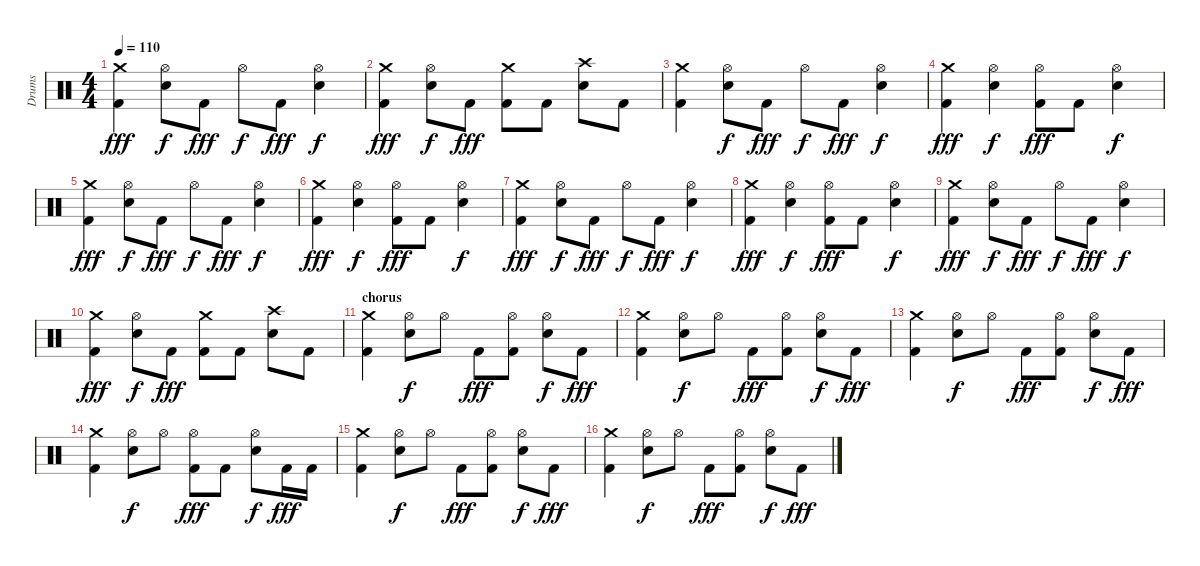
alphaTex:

\track ("Drums" "Drums") {instrument percussion}
\staff {score}
\articulation defaults
\ts (4 4)
\tempo 110
\clef neutral
\ks c
("Crash medium (hit)" "Kick (hit) 2").4{dy fff} ("Hi-Hat (open)" "Electric Snare (hit)").8{dy f} "Kick (hit) 2".8{dy fff} "Hi-Hat (open)".8{dy f} "Kick (hit) 2".8{dy fff} ("Hi-Hat (open)" "Electric Snare (hit)").4{dy f} |
("Crash medium (hit)" "Kick (hit) 2").4{dy fff} ("Hi-Hat (open)" "Electric Snare (hit)").8{dy f} "Kick (hit) 2".8{dy fff} ("Crash medium (hit)" "Kick (hit) 2").8 "Kick (hit) 2".8 ("Crash high (hit)" "Electric Snare (hit)").8 "Kick (hit) 2".8 |
("Crash medium (hit)" "Kick (hit) 2").4 ("Hi-Hat (open)" "Electric Snare (hit)").8{dy f} "Kick (hit) 2".8{dy fff} "Hi-Hat (open)".8{dy f} "Kick (hit) 2".8{dy fff} ("Hi-Hat (open)" "Electric Snare (hit)").4{dy f} |
("Crash medium (hit)" "Kick (hit) 2").4{dy fff} ("Hi-Hat (open)" "Electric Snare (hit)").4{dy f} ("Hi-Hat (open)" "Kick (hit) 2").8{dy fff} "Kick (hit) 2".8 ("Hi-Hat (open)" "Electric Snare (hit)").4{dy f} |
("Crash medium (hit)" "Kick (hit) 2").4{dy fff} ("Hi-Hat (open)" "Electric Snare (hit)").8{dy f} "Kick (hit) 2".8{dy fff} "Hi-Hat (open)".8{dy f} "Kick (hit) 2".8{dy fff} ("Hi-Hat (open)" "Electric Snare (hit)").4{dy f} |
("Crash medium (hit)" "Kick (hit) 2").4{dy fff} ("Hi-Hat (open)" "Electric Snare (hit)").4{dy f} ("Hi-Hat (open)" "Kick (hit) 2").8{dy fff} "Kick (hit) 2".8 ("Hi-Hat (open)" "Electric Snare (hit)").4{dy f} |
("Crash medium (hit)" "Kick (hit) 2").4{dy fff} ("Hi-Hat (open)" "Electric Snare (hit)").8{dy f} "Kick (hit) 2".8{dy fff} "Hi-Hat (open)".8{dy f} "Kick (hit) 2".8{dy fff} ("Hi-Hat (open)" "Electric Snare (hit)").4{dy f} |
("Crash medium (hit)" "Kick (hit) 2").4{dy fff} ("Hi-Hat (open)" "Electric Snare (hit)").4{dy f} ("Hi-Hat (open)" "Kick (hit) 2").8{dy fff} "Kick (hit) 2".8 ("Hi-Hat (open)" "Electric Snare (hit)").4{dy f} |
("Crash medium (hit)" "Kick (hit) 2").4{dy fff} ("Hi-Hat (open)" "Electric Snare (hit)").8{dy f} "Kick (hit) 2".8{dy fff} "Hi-Hat (open)".8{dy f} "Kick (hit) 2".8{dy fff} ("Hi-Hat (open)" "Electric Snare (hit)").4{dy f} |
("Crash medium (hit)" "Kick (hit) 2").4{dy fff} ("Hi-Hat (open)" "Electric Snare (hit)").8{dy f} "Kick (hit) 2".8{dy fff} ("Crash medium (hit)" "Kick (hit) 2").8 "Kick (hit) 2".8 ("Crash high (hit)" "Electric Snare (hit)").8 "Kick (hit) 2".8 |
\section ("" "chorus")
("Crash medium (hit)" "Kick (hit) 2").4 ("Hi-Hat (open)" "Electric Snare (hit)").8{dy f} "Hi-Hat (open)".8 "Kick (hit) 2".8{dy fff} ("Hi-Hat (open)" "Kick (hit) 2").8 ("Hi-Hat (open)" "Electric Snare (hit)").8{dy f} "Kick (hit) 2".8{dy fff} |
("Crash medium (hit)" "Kick (hit) 2").4 ("Hi-Hat (open)" "Electric Snare (hit)").8{dy f} "Hi-Hat (open)".8 "Kick (hit) 2".8{dy fff} ("Hi-Hat (open)" "Kick (hit) 2").8 ("Hi-Hat (open)" "Electric Snare (hit)").8{dy f} "Kick (hit) 2".8{dy fff} |
("Crash medium (hit)" "Kick (hit) 2").4 ("Hi-Hat (open)" "Electric Snare (hit)").8{dy f} "Hi-Hat (open)".8 "Kick (hit) 2".8{dy fff} ("Hi-Hat (open)" "Kick (hit) 2").8 ("Hi-Hat (open)" "Electric Snare (hit)").8{dy f} "Kick (hit) 2".8{dy fff} |
("Crash medium (hit)" "Kick (hit) 2").4 ("Hi-Hat (open)" "Electric Snare (hit)").8{dy f} "Hi-Hat (open)".8 ("Hi-Hat (open)" "Kick (hit) 2").8{dy fff} "Kick (hit) 2".8 ("Hi-Hat (open)" "Electric Snare (hit)").8{dy f} "Kick (hit) 2".16{dy fff} "Kick (hit) 2".16 |
("Crash medium (hit)" "Kick (hit) 2").4 ("Hi-Hat (open)" "Electric Snare (hit)").8{dy f} "Hi-Hat (open)".8 "Kick (hit) 2".8{dy fff} ("Hi-Hat (open)" "Kick (hit) 2").8 ("Hi-Hat (open)" "Electric Snare (hit)").8{dy f} "Kick (hit) 2".8{dy fff} |
("Crash medium (hit)" "Kick (hit) 2").4 ("Hi-Hat (open)" "Electric Snare (hit)").8{dy f} "Hi-Hat (open)".8 "Kick (hit) 2".8{dy fff} ("Hi-Hat (open)" "Kick (hit) 2").8 ("Hi-Hat (open)" "Electric Snare (hit)").8{dy f} "Kick (hit) 2".8{dy fff}
